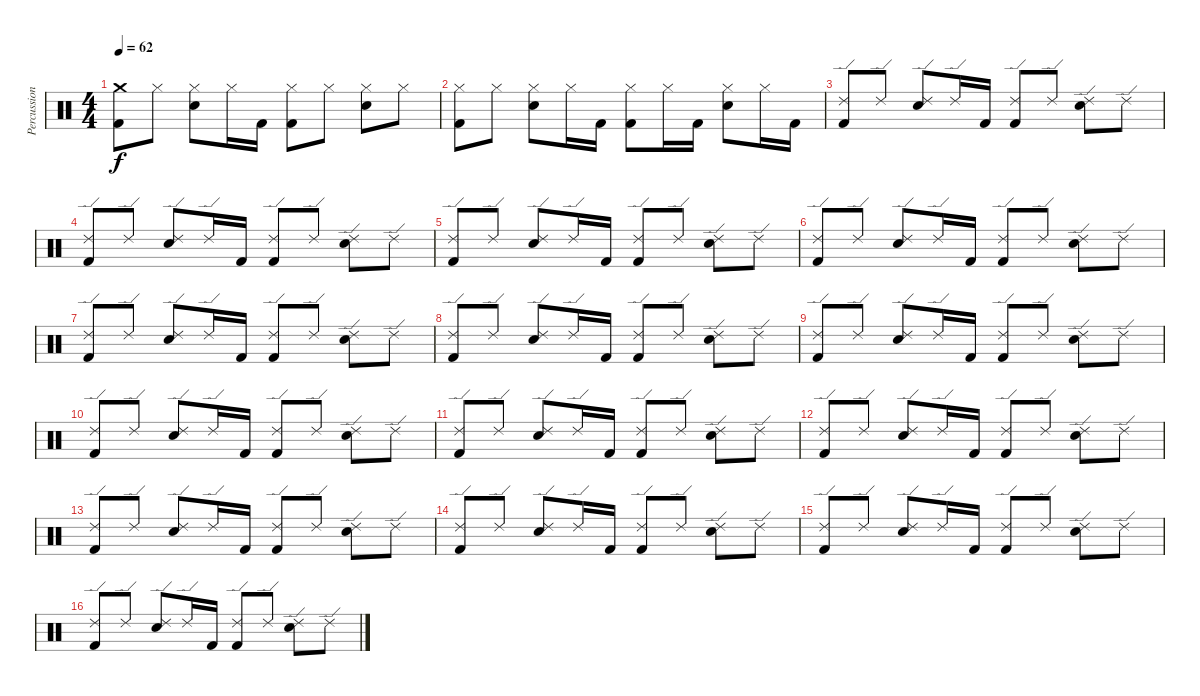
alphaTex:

\track ("Percussion" "Percussion") {instrument percussion}
\staff {score}
\articulation defaults
\ts (4 4)
\tempo 62
\clef neutral
\ks c
("Crash medium (hit)" "Kick (hit) 2").8{dy f} "Hi-Hat (closed)".8 ("Hi-Hat (closed)" "Electric Snare (hit)").8 "Hi-Hat (closed)".16 "Kick (hit) 2".16 ("Hi-Hat (closed)" "Kick (hit) 2").8 "Hi-Hat (closed)".8 ("Hi-Hat (closed)" "Electric Snare (hit)").8 "Hi-Hat (closed)".8 |
("Hi-Hat (closed)" "Kick (hit) 2").8 "Hi-Hat (closed)".8 ("Hi-Hat (closed)" "Electric Snare (hit)").8 "Hi-Hat (closed)".16 "Kick (hit) 2".16 ("Hi-Hat (closed)" "Kick (hit) 2").8 "Hi-Hat (closed)".16 "Kick (hit) 2".16 ("Hi-Hat (closed)" "Electric Snare (hit)").8 "Hi-Hat (closed)".16 "Kick (hit) 2".16 |
("Ride (edge) 2" "Kick (hit) 2").8 "Ride (edge) 2".8 ("Ride (edge) 2" "Electric Snare (hit)").8 "Ride (edge) 2".16 "Kick (hit) 2".16 ("Ride (edge) 2" "Kick (hit) 2").8 "Ride (edge) 2".8 ("Ride (edge) 2" "Electric Snare (hit)").8 "Ride (edge) 2".8 |
("Ride (edge) 2" "Kick (hit) 2").8 "Ride (edge) 2".8 ("Ride (edge) 2" "Electric Snare (hit)").8 "Ride (edge) 2".16 "Kick (hit) 2".16 ("Ride (edge) 2" "Kick (hit) 2").8 "Ride (edge) 2".8 ("Ride (edge) 2" "Electric Snare (hit)").8 "Ride (edge) 2".8 |
("Ride (edge) 2" "Kick (hit) 2").8 "Ride (edge) 2".8 ("Ride (edge) 2" "Electric Snare (hit)").8 "Ride (edge) 2".16 "Kick (hit) 2".16 ("Ride (edge) 2" "Kick (hit) 2").8 "Ride (edge) 2".8 ("Ride (edge) 2" "Electric Snare (hit)").8 "Ride (edge) 2".8 |
("Ride (edge) 2" "Kick (hit) 2").8 "Ride (edge) 2".8 ("Ride (edge) 2" "Electric Snare (hit)").8 "Ride (edge) 2".16 "Kick (hit) 2".16 ("Ride (edge) 2" "Kick (hit) 2").8 "Ride (edge) 2".8 ("Ride (edge) 2" "Electric Snare (hit)").8 "Ride (edge) 2".8 |
("Ride (edge) 2" "Kick (hit) 2").8 "Ride (edge) 2".8 ("Ride (edge) 2" "Electric Snare (hit)").8 "Ride (edge) 2".16 "Kick (hit) 2".16 ("Ride (edge) 2" "Kick (hit) 2").8 "Ride (edge) 2".8 ("Ride (edge) 2" "Electric Snare (hit)").8 "Ride (edge) 2".8 |
("Ride (edge) 2" "Kick (hit) 2").8 "Ride (edge) 2".8 ("Ride (edge) 2" "Electric Snare (hit)").8 "Ride (edge) 2".16 "Kick (hit) 2".16 ("Ride (edge) 2" "Kick (hit) 2").8 "Ride (edge) 2".8 ("Ride (edge) 2" "Electric Snare (hit)").8 "Ride (edge) 2".8 |
("Ride (edge) 2" "Kick (hit) 2").8 "Ride (edge) 2".8 ("Ride (edge) 2" "Electric Snare (hit)").8 "Ride (edge) 2".16 "Kick (hit) 2".16 ("Ride (edge) 2" "Kick (hit) 2").8 "Ride (edge) 2".8 ("Ride (edge) 2" "Electric Snare (hit)").8 "Ride (edge) 2".8 |
("Ride (edge) 2" "Kick (hit) 2").8 "Ride (edge) 2".8 ("Ride (edge) 2" "Electric Snare (hit)").8 "Ride (edge) 2".16 "Kick (hit) 2".16 ("Ride (edge) 2" "Kick (hit) 2").8 "Ride (edge) 2".8 ("Ride (edge) 2" "Electric Snare (hit)").8 "Ride (edge) 2".8 |
("Ride (edge) 2" "Kick (hit) 2").8 "Ride (edge) 2".8 ("Ride (edge) 2" "Electric Snare (hit)").8 "Ride (edge) 2".16 "Kick (hit) 2".16 ("Ride (edge) 2" "Kick (hit) 2").8 "Ride (edge) 2".8 ("Ride (edge) 2" "Electric Snare (hit)").8 "Ride (edge) 2".8 |
("Ride (edge) 2" "Kick (hit) 2").8 "Ride (edge) 2".8 ("Ride (edge) 2" "Electric Snare (hit)").8 "Ride (edge) 2".16 "Kick (hit) 2".16 ("Ride (edge) 2" "Kick (hit) 2").8 "Ride (edge) 2".8 ("Ride (edge) 2" "Electric Snare (hit)").8 "Ride (edge) 2".8 |
("Ride (edge) 2" "Kick (hit) 2").8 "Ride (edge) 2".8 ("Ride (edge) 2" "Electric Snare (hit)").8 "Ride (edge) 2".16 "Kick (hit) 2".16 ("Ride (edge) 2" "Kick (hit) 2").8 "Ride (edge) 2".8 ("Ride (edge) 2" "Electric Snare (hit)").8 "Ride (edge) 2".8 |
("Ride (edge) 2" "Kick (hit) 2").8 "Ride (edge) 2".8 ("Ride (edge) 2" "Electric Snare (hit)").8 "Ride (edge) 2".16 "Kick (hit) 2".16 ("Ride (edge) 2" "Kick (hit) 2").8 "Ride (edge) 2".8 ("Ride (edge) 2" "Electric Snare (hit)").8 "Ride (edge) 2".8 |
("Ride (edge) 2" "Kick (hit) 2").8 "Ride (edge) 2".8 ("Ride (edge) 2" "Electric Snare (hit)").8 "Ride (edge) 2".16 "Kick (hit) 2".16 ("Ride (edge) 2" "Kick (hit) 2").8 "Ride (edge) 2".8 ("Ride (edge) 2" "Electric Snare (hit)").8 "Ride (edge) 2".8 |
("Ride (edge) 2" "Kick (hit) 2").8 "Ride (edge) 2".8 ("Ride (edge) 2" "Electric Snare (hit)").8 "Ride (edge) 2".16 "Kick (hit) 2".16 ("Ride (edge) 2" "Kick (hit) 2").8 "Ride (edge) 2".8 ("Ride (edge) 2" "Electric Snare (hit)").8 "Ride (edge) 2".8
